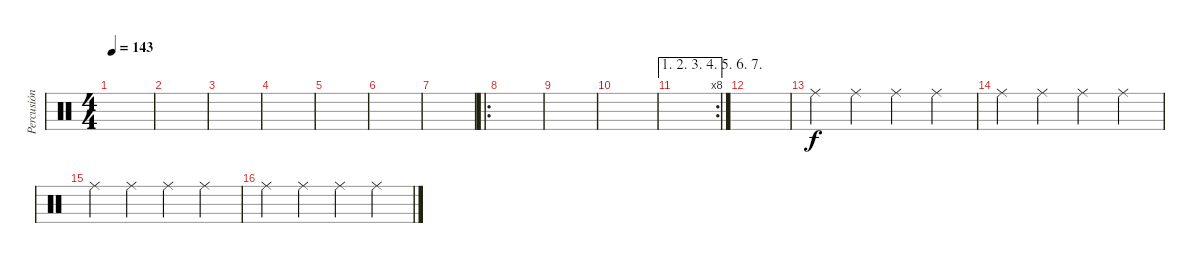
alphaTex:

\track ("Percusión" "Percusión") {instrument percussion}
\staff {score}
\articulation defaults
\ts (4 4)
\tempo 143
\clef neutral
\ks c
|
|
|
|
|
|
|
\ro
|
|
|
\ae (1 2 3 4 5 6 7)
\rc 8
|
|
"Ride (middle)".4 "Ride (middle)".4 "Ride (middle)".4 "Ride (middle)".4 |
"Ride (middle)".4 "Ride (middle)".4 "Ride (middle)".4 "Ride (middle)".4 |
"Ride (middle)".4 "Ride (middle)".4 "Ride (middle)".4 "Ride (middle)".4 |
"Ride (middle)".4 "Ride (middle)".4 "Ride (middle)".4 "Ride (middle)".4
